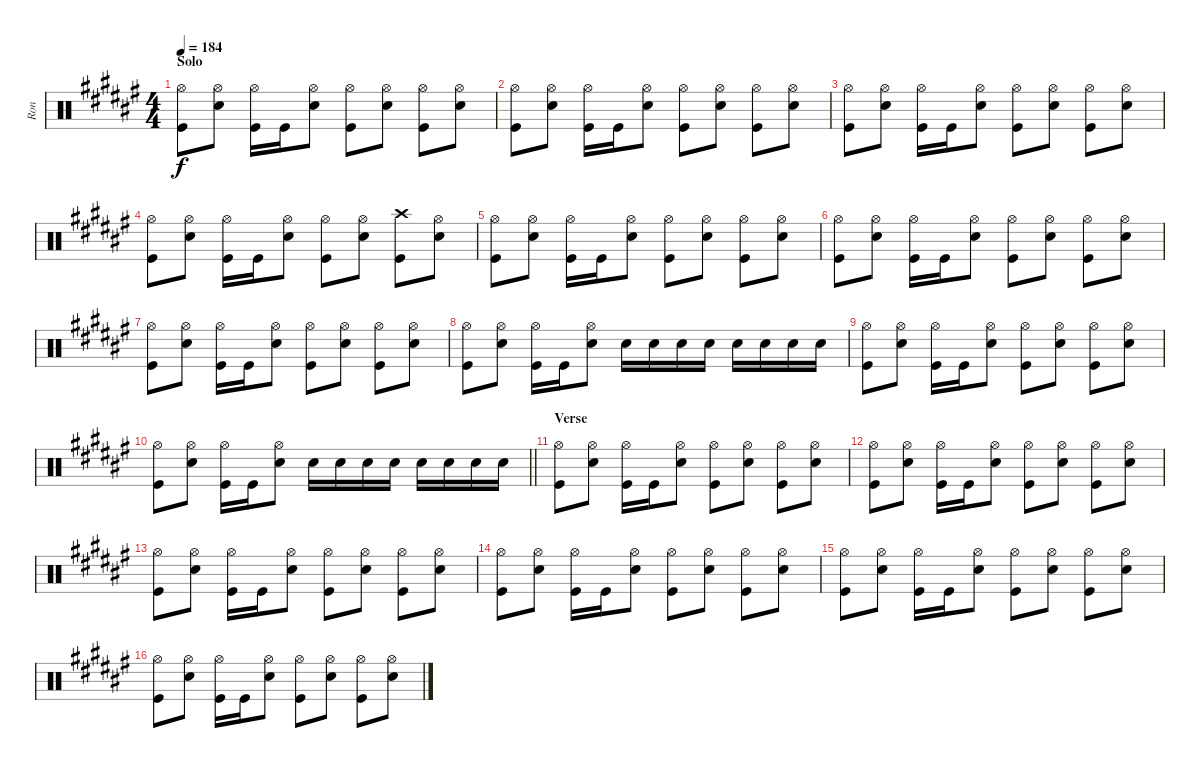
\track ("Ron" "Ron") {instrument percussion}
\staff {score}
\articulation defaults
\ts (4 4)
\section ("" "Solo")
\tempo 184
\clef neutral
\ks f#
("Kick (hit)" "Hi-Hat (open)").8{dy f} ("Electric Snare (hit)" "Hi-Hat (open)").8 ("Kick (hit)" "Hi-Hat (open)").16 "Kick (hit)".16 ("Electric Snare (hit)" "Hi-Hat (open)").8 ("Kick (hit)" "Hi-Hat (open)").8 ("Electric Snare (hit)" "Hi-Hat (open)").8 ("Kick (hit)" "Hi-Hat (open)").8 ("Electric Snare (hit)" "Hi-Hat (open)").8 |
("Kick (hit)" "Hi-Hat (open)").8 ("Electric Snare (hit)" "Hi-Hat (open)").8 ("Kick (hit)" "Hi-Hat (open)").16 "Kick (hit)".16 ("Electric Snare (hit)" "Hi-Hat (open)").8 ("Kick (hit)" "Hi-Hat (open)").8 ("Electric Snare (hit)" "Hi-Hat (open)").8 ("Kick (hit)" "Hi-Hat (open)").8 ("Electric Snare (hit)" "Hi-Hat (open)").8 |
("Kick (hit)" "Hi-Hat (open)").8 ("Electric Snare (hit)" "Hi-Hat (open)").8 ("Kick (hit)" "Hi-Hat (open)").16 "Kick (hit)".16 ("Electric Snare (hit)" "Hi-Hat (open)").8 ("Kick (hit)" "Hi-Hat (open)").8 ("Electric Snare (hit)" "Hi-Hat (open)").8 ("Kick (hit)" "Hi-Hat (open)").8 ("Electric Snare (hit)" "Hi-Hat (open)").8 |
("Kick (hit)" "Hi-Hat (open)").8 ("Electric Snare (hit)" "Hi-Hat (open)").8 ("Kick (hit)" "Hi-Hat (open)").16 "Kick (hit)".16 ("Electric Snare (hit)" "Hi-Hat (open)").8 ("Kick (hit)" "Hi-Hat (open)").8 ("Electric Snare (hit)" "Hi-Hat (open)").8 ("Kick (hit)" "Crash high (hit)").8 ("Electric Snare (hit)" "Hi-Hat (open)").8 |
("Kick (hit)" "Hi-Hat (open)").8 ("Electric Snare (hit)" "Hi-Hat (open)").8 ("Kick (hit)" "Hi-Hat (open)").16 "Kick (hit)".16 ("Electric Snare (hit)" "Hi-Hat (open)").8 ("Kick (hit)" "Hi-Hat (open)").8 ("Electric Snare (hit)" "Hi-Hat (open)").8 ("Kick (hit)" "Hi-Hat (open)").8 ("Electric Snare (hit)" "Hi-Hat (open)").8 |
("Kick (hit)" "Hi-Hat (open)").8 ("Electric Snare (hit)" "Hi-Hat (open)").8 ("Kick (hit)" "Hi-Hat (open)").16 "Kick (hit)".16 ("Electric Snare (hit)" "Hi-Hat (open)").8 ("Kick (hit)" "Hi-Hat (open)").8 ("Electric Snare (hit)" "Hi-Hat (open)").8 ("Kick (hit)" "Hi-Hat (open)").8 ("Electric Snare (hit)" "Hi-Hat (open)").8 |
("Kick (hit)" "Hi-Hat (open)").8 ("Electric Snare (hit)" "Hi-Hat (open)").8 ("Kick (hit)" "Hi-Hat (open)").16 "Kick (hit)".16 ("Electric Snare (hit)" "Hi-Hat (open)").8 ("Kick (hit)" "Hi-Hat (open)").8 ("Electric Snare (hit)" "Hi-Hat (open)").8 ("Kick (hit)" "Hi-Hat (open)").8 ("Electric Snare (hit)" "Hi-Hat (open)").8 |
("Kick (hit)" "Hi-Hat (open)").8 ("Electric Snare (hit)" "Hi-Hat (open)").8 ("Kick (hit)" "Hi-Hat (open)").16 "Kick (hit)".16 ("Electric Snare (hit)" "Hi-Hat (open)").8 "Electric Snare (hit)".16 "Electric Snare (hit)".16 "Electric Snare (hit)".16 "Electric Snare (hit)".16 "Electric Snare (hit)".16 "Electric Snare (hit)".16 "Electric Snare (hit)".16 "Electric Snare (hit)".16 |
("Kick (hit)" "Hi-Hat (open)").8 ("Electric Snare (hit)" "Hi-Hat (open)").8 ("Kick (hit)" "Hi-Hat (open)").16 "Kick (hit)".16 ("Electric Snare (hit)" "Hi-Hat (open)").8 ("Kick (hit)" "Hi-Hat (open)").8 ("Electric Snare (hit)" "Hi-Hat (open)").8 ("Kick (hit)" "Hi-Hat (open)").8 ("Electric Snare (hit)" "Hi-Hat (open)").8 |
\barLineRight lightlight
("Kick (hit)" "Hi-Hat (open)").8 ("Electric Snare (hit)" "Hi-Hat (open)").8 ("Kick (hit)" "Hi-Hat (open)").16 "Kick (hit)".16 ("Electric Snare (hit)" "Hi-Hat (open)").8 "Electric Snare (hit)".16 "Electric Snare (hit)".16 "Electric Snare (hit)".16 "Electric Snare (hit)".16 "Electric Snare (hit)".16 "Electric Snare (hit)".16 "Electric Snare (hit)".16 "Electric Snare (hit)".16 |
\section ("" "Verse")
("Kick (hit)" "Hi-Hat (open)").8 ("Electric Snare (hit)" "Hi-Hat (open)").8 ("Kick (hit)" "Hi-Hat (open)").16 "Kick (hit)".16 ("Electric Snare (hit)" "Hi-Hat (open)").8 ("Kick (hit)" "Hi-Hat (open)").8 ("Electric Snare (hit)" "Hi-Hat (open)").8 ("Kick (hit)" "Hi-Hat (open)").8 ("Electric Snare (hit)" "Hi-Hat (open)").8 |
("Kick (hit)" "Hi-Hat (open)").8 ("Electric Snare (hit)" "Hi-Hat (open)").8 ("Kick (hit)" "Hi-Hat (open)").16 "Kick (hit)".16 ("Electric Snare (hit)" "Hi-Hat (open)").8 ("Kick (hit)" "Hi-Hat (open)").8 ("Electric Snare (hit)" "Hi-Hat (open)").8 ("Kick (hit)" "Hi-Hat (open)").8 ("Electric Snare (hit)" "Hi-Hat (open)").8 |
("Kick (hit)" "Hi-Hat (open)").8 ("Electric Snare (hit)" "Hi-Hat (open)").8 ("Kick (hit)" "Hi-Hat (open)").16 "Kick (hit)".16 ("Electric Snare (hit)" "Hi-Hat (open)").8 ("Kick (hit)" "Hi-Hat (open)").8 ("Electric Snare (hit)" "Hi-Hat (open)").8 ("Kick (hit)" "Hi-Hat (open)").8 ("Electric Snare (hit)" "Hi-Hat (open)").8 |
("Kick (hit)" "Hi-Hat (open)").8 ("Electric Snare (hit)" "Hi-Hat (open)").8 ("Kick (hit)" "Hi-Hat (open)").16 "Kick (hit)".16 ("Electric Snare (hit)" "Hi-Hat (open)").8 ("Kick (hit)" "Hi-Hat (open)").8 ("Electric Snare (hit)" "Hi-Hat (open)").8 ("Kick (hit)" "Hi-Hat (open)").8 ("Electric Snare (hit)" "Hi-Hat (open)").8 |
("Kick (hit)" "Hi-Hat (open)").8 ("Electric Snare (hit)" "Hi-Hat (open)").8 ("Kick (hit)" "Hi-Hat (open)").16 "Kick (hit)".16 ("Electric Snare (hit)" "Hi-Hat (open)").8 ("Kick (hit)" "Hi-Hat (open)").8 ("Electric Snare (hit)" "Hi-Hat (open)").8 ("Kick (hit)" "Hi-Hat (open)").8 ("Electric Snare (hit)" "Hi-Hat (open)").8 |
("Kick (hit)" "Hi-Hat (open)").8 ("Electric Snare (hit)" "Hi-Hat (open)").8 ("Kick (hit)" "Hi-Hat (open)").16 "Kick (hit)".16 ("Electric Snare (hit)" "Hi-Hat (open)").8 ("Kick (hit)" "Hi-Hat (open)").8 ("Electric Snare (hit)" "Hi-Hat (open)").8 ("Kick (hit)" "Hi-Hat (open)").8 ("Electric Snare (hit)" "Hi-Hat (open)").8
